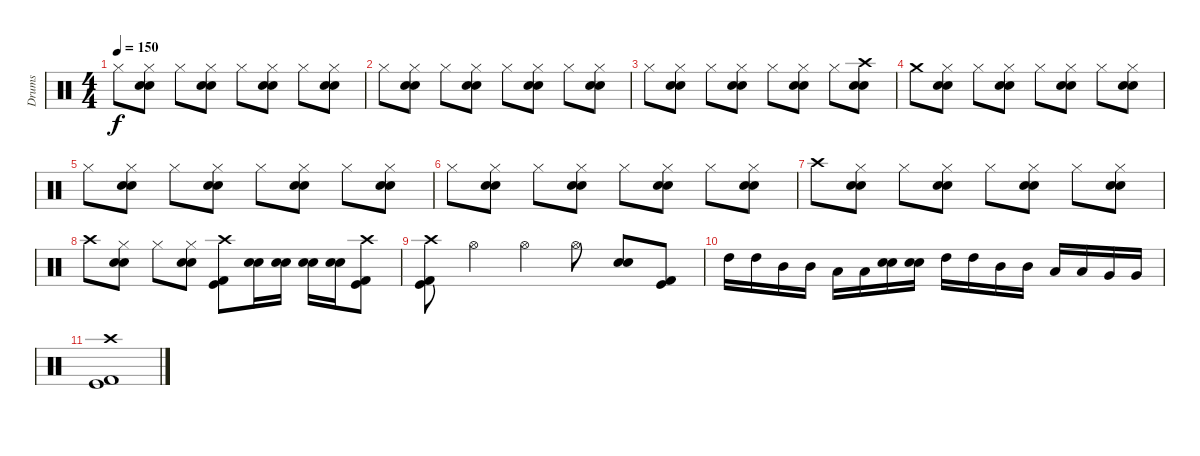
\track ("Drums" "Drums") {instrument percussion}
\staff {score}
\articulation defaults
\ts (4 4)
\tempo 150
\clef neutral
\ks c "Hi-Hat (closed)".8{dy f}
("Hi-Hat (closed)" "Electric Snare (hit)" "Snare (hit) 2").8 "Hi-Hat (closed)".8 ("Hi-Hat (closed)" "Electric Snare (hit)" "Snare (hit) 2").8 "Hi-Hat (closed)".8 ("Hi-Hat (closed)" "Electric Snare (hit)" "Snare (hit) 2").8 "Hi-Hat (closed)".8 ("Hi-Hat (closed)" "Electric Snare (hit)" "Snare (hit) 2").8 |
"Hi-Hat (closed)".8 ("Hi-Hat (closed)" "Electric Snare (hit)" "Snare (hit) 2").8 "Hi-Hat (closed)".8 ("Hi-Hat (closed)" "Electric Snare (hit)" "Snare (hit) 2").8 "Hi-Hat (closed)".8 ("Hi-Hat (closed)" "Electric Snare (hit)" "Snare (hit) 2").8 "Hi-Hat (closed)".8 ("Hi-Hat (closed)" "Electric Snare (hit)" "Snare (hit) 2").8 |
"Hi-Hat (closed)".8 ("Hi-Hat (closed)" "Electric Snare (hit)" "Snare (hit) 2").8 "Hi-Hat (closed)".8 ("Hi-Hat (closed)" "Electric Snare (hit)" "Snare (hit) 2").8 "Hi-Hat (closed)".8 ("Hi-Hat (closed)" "Electric Snare (hit)" "Snare (hit) 2").8 "Hi-Hat (closed)".8 ("Crash high (hit)" "Electric Snare (hit)" "Snare (hit) 2").8 |
"Crash medium (hit)".8 ("Hi-Hat (closed)" "Electric Snare (hit)" "Snare (hit) 2").8 "Hi-Hat (closed)".8 ("Hi-Hat (closed)" "Electric Snare (hit)" "Snare (hit) 2").8 "Hi-Hat (closed)".8 ("Hi-Hat (closed)" "Electric Snare (hit)" "Snare (hit) 2").8 "Hi-Hat (closed)".8 ("Hi-Hat (closed)" "Electric Snare (hit)" "Snare (hit) 2").8 |
"Hi-Hat (closed)".8 ("Hi-Hat (closed)" "Electric Snare (hit)" "Snare (hit) 2").8 "Hi-Hat (closed)".8 ("Hi-Hat (closed)" "Electric Snare (hit)" "Snare (hit) 2").8 "Hi-Hat (closed)".8 ("Hi-Hat (closed)" "Electric Snare (hit)" "Snare (hit) 2").8 "Hi-Hat (closed)".8 ("Hi-Hat (closed)" "Electric Snare (hit)" "Snare (hit) 2").8 |
"Hi-Hat (closed)".8 ("Hi-Hat (closed)" "Electric Snare (hit)" "Snare (hit) 2").8 "Hi-Hat (closed)".8 ("Hi-Hat (closed)" "Electric Snare (hit)" "Snare (hit) 2").8 "Hi-Hat (closed)".8 ("Hi-Hat (closed)" "Electric Snare (hit)" "Snare (hit) 2").8 "Hi-Hat (closed)".8 ("Hi-Hat (closed)" "Electric Snare (hit)" "Snare (hit) 2").8 |
"Crash high (hit)".8 ("Hi-Hat (closed)" "Electric Snare (hit)" "Snare (hit) 2").8 "Hi-Hat (closed)".8 ("Hi-Hat (closed)" "Electric Snare (hit)" "Snare (hit) 2").8 "Hi-Hat (closed)".8 ("Hi-Hat (closed)" "Electric Snare (hit)" "Snare (hit) 2").8 "Hi-Hat (closed)".8 ("Hi-Hat (closed)" "Electric Snare (hit)" "Snare (hit) 2").8 |
"Crash high (hit)".8 ("Hi-Hat (closed)" "Electric Snare (hit)" "Snare (hit) 2").8 "Hi-Hat (closed)".8 ("Hi-Hat (closed)" "Electric Snare (hit)" "Snare (hit) 2").8 ("Kick (hit) 2" "Kick (hit)" "Crash high (hit)").8 ("Electric Snare (hit)" "Snare (hit) 2").16 ("Electric Snare (hit)" "Snare (hit) 2").16 ("Electric Snare (hit)" "Snare (hit) 2").16 ("Electric Snare (hit)" "Snare (hit) 2").16 ("Kick (hit) 2" "Kick (hit)" "Crash high (hit)").8 |
("Crash high (hit)" "Kick (hit) 2" "Kick (hit)").8 "Hi-Hat (open)".4 "Hi-Hat (open)".4 "Hi-Hat (open)".8 ("Electric Snare (hit)" "Snare (hit) 2").8 ("Kick (hit) 2" "Kick (hit)").8 |
"High Tom (hit)".16 "High Tom (hit)".16 "Mid Tom (hit)".16 "Mid Tom (hit)".16 "Low Tom (hit)".16 "Low Tom (hit)".16 ("Electric Snare (hit)" "Snare (hit) 2").16 ("Electric Snare (hit)" "Snare (hit) 2").16 "High Tom (hit)".16 "High Tom (hit)".16 "Mid Tom (hit)".16 "Mid Tom (hit)".16 "Low Tom (hit)".16 "Low Tom (hit)".16 "Very Low Tom (hit)".16 "Very Low Tom (hit)".16 |
("Kick (hit) 2" "Kick (hit)" "Crash high (hit)").1
